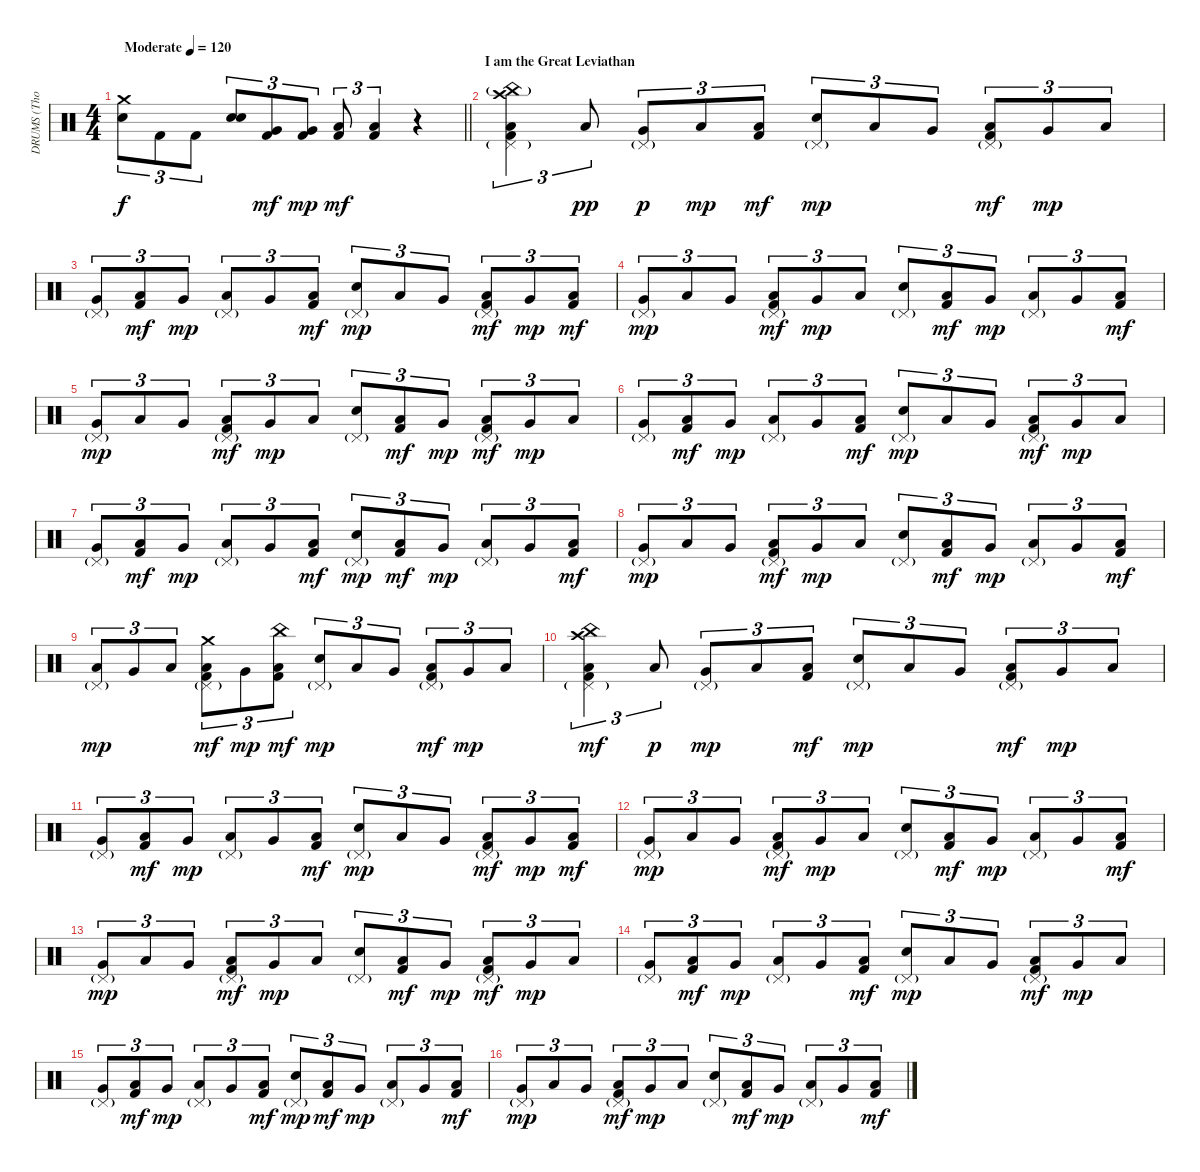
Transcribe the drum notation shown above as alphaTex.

\track ("DRUMS (Thomas Haake)" "DRUMS (Tho") {instrument percussion}
\staff {score}
\articulation defaults
\ts (4 4)
\tempo (120 "Moderate")
\clef neutral
\barLineRight lightlight
\ks c
("Crash medium (hit)" "Electric Snare (hit)").8{tu (3 2) dy f} "Kick (hit) 2".8{tu (3 2)} "Kick (hit) 2".8{tu (3 2)} ("Electric Snare (hit)" "Electric Snare (hit)").8{tu (3 2) bd 120} ("Very Low Tom (hit)" "Kick (hit) 2").8{tu (3 2) dy mf} ("Very Low Tom (hit)" "Kick (hit) 2").8{tu (3 2) dy mp} ("Low Floor Tom (hit)" "Kick (hit) 2").8{tu (3 2) dy mf} ("Low Floor Tom (hit)" "Kick (hit) 2").4{tu (3 2)} r.4 |
\section ("" "I am the Great Leviathan")
("Pedal Hi-Hat (hit)"{g} "Crash high (hit)" "China (hit)"{g} "Low Floor Tom (hit)" "Kick (hit) 2").4{tu (3 2)} "Low Floor Tom (hit)".8{tu (3 2) dy pp} ("Pedal Hi-Hat (hit)"{g} "Very Low Tom (hit)").8{tu (3 2) dy p} "Low Floor Tom (hit)".8{tu (3 2) dy mp} ("Low Floor Tom (hit)" "Kick (hit) 2").8{tu (3 2) dy mf} ("Pedal Hi-Hat (hit)"{g} "Electric Snare (hit)").8{tu (3 2) dy mp} "Low Floor Tom (hit)".8{tu (3 2)} "Very Low Tom (hit)".8{tu (3 2)} ("Pedal Hi-Hat (hit)"{g} "Low Floor Tom (hit)" "Kick (hit) 2").8{tu (3 2) dy mf} "Very Low Tom (hit)".8{tu (3 2) dy mp} "Low Floor Tom (hit)".8{tu (3 2)} |
("Pedal Hi-Hat (hit)"{g} "Very Low Tom (hit)").8{tu (3 2)} ("Low Floor Tom (hit)" "Kick (hit) 2").8{tu (3 2) dy mf} "Very Low Tom (hit)".8{tu (3 2) dy mp} ("Pedal Hi-Hat (hit)"{g} "Low Floor Tom (hit)").8{tu (3 2)} "Very Low Tom (hit)".8{tu (3 2)} ("Low Floor Tom (hit)" "Kick (hit) 2").8{tu (3 2) dy mf} ("Pedal Hi-Hat (hit)"{g} "Electric Snare (hit)").8{tu (3 2) dy mp} "Low Floor Tom (hit)".8{tu (3 2)} "Very Low Tom (hit)".8{tu (3 2)} ("Pedal Hi-Hat (hit)"{g} "Low Floor Tom (hit)" "Kick (hit) 2").8{tu (3 2) dy mf} "Very Low Tom (hit)".8{tu (3 2) dy mp} ("Low Floor Tom (hit)" "Kick (hit) 2").8{tu (3 2) dy mf} |
("Pedal Hi-Hat (hit)"{g} "Very Low Tom (hit)").8{tu (3 2) dy mp} "Low Floor Tom (hit)".8{tu (3 2)} "Very Low Tom (hit)".8{tu (3 2)} ("Pedal Hi-Hat (hit)"{g} "Low Floor Tom (hit)" "Kick (hit) 2").8{tu (3 2) dy mf} "Very Low Tom (hit)".8{tu (3 2) dy mp} "Low Floor Tom (hit)".8{tu (3 2)} ("Pedal Hi-Hat (hit)"{g} "Electric Snare (hit)").8{tu (3 2)} ("Low Floor Tom (hit)" "Kick (hit) 2").8{tu (3 2) dy mf} "Very Low Tom (hit)".8{tu (3 2) dy mp} ("Pedal Hi-Hat (hit)"{g} "Low Floor Tom (hit)").8{tu (3 2)} "Very Low Tom (hit)".8{tu (3 2)} ("Low Floor Tom (hit)" "Kick (hit) 2").8{tu (3 2) dy mf} |
("Pedal Hi-Hat (hit)"{g} "Very Low Tom (hit)").8{tu (3 2) dy mp} "Low Floor Tom (hit)".8{tu (3 2)} "Very Low Tom (hit)".8{tu (3 2)} ("Pedal Hi-Hat (hit)"{g} "Low Floor Tom (hit)" "Kick (hit) 2").8{tu (3 2) dy mf} "Very Low Tom (hit)".8{tu (3 2) dy mp} "Low Floor Tom (hit)".8{tu (3 2)} ("Pedal Hi-Hat (hit)"{g} "Electric Snare (hit)").8{tu (3 2)} ("Low Floor Tom (hit)" "Kick (hit) 2").8{tu (3 2) dy mf} "Very Low Tom (hit)".8{tu (3 2) dy mp} ("Pedal Hi-Hat (hit)"{g} "Low Floor Tom (hit)" "Kick (hit) 2").8{tu (3 2) dy mf} "Very Low Tom (hit)".8{tu (3 2) dy mp} "Low Floor Tom (hit)".8{tu (3 2)} |
("Pedal Hi-Hat (hit)"{g} "Very Low Tom (hit)").8{tu (3 2)} ("Low Floor Tom (hit)" "Kick (hit) 2").8{tu (3 2) dy mf} "Very Low Tom (hit)".8{tu (3 2) dy mp} ("Pedal Hi-Hat (hit)"{g} "Low Floor Tom (hit)").8{tu (3 2)} "Very Low Tom (hit)".8{tu (3 2)} ("Low Floor Tom (hit)" "Kick (hit) 2").8{tu (3 2) dy mf} ("Pedal Hi-Hat (hit)"{g} "Electric Snare (hit)").8{tu (3 2) dy mp} "Low Floor Tom (hit)".8{tu (3 2)} "Very Low Tom (hit)".8{tu (3 2)} ("Pedal Hi-Hat (hit)"{g} "Low Floor Tom (hit)" "Kick (hit) 2").8{tu (3 2) dy mf} "Very Low Tom (hit)".8{tu (3 2) dy mp} "Low Floor Tom (hit)".8{tu (3 2)} |
("Pedal Hi-Hat (hit)"{g} "Very Low Tom (hit)").8{tu (3 2)} ("Low Floor Tom (hit)" "Kick (hit) 2").8{tu (3 2) dy mf} "Very Low Tom (hit)".8{tu (3 2) dy mp} ("Pedal Hi-Hat (hit)"{g} "Low Floor Tom (hit)").8{tu (3 2)} "Very Low Tom (hit)".8{tu (3 2)} ("Low Floor Tom (hit)" "Kick (hit) 2").8{tu (3 2) dy mf} ("Pedal Hi-Hat (hit)"{g} "Electric Snare (hit)").8{tu (3 2) dy mp} ("Low Floor Tom (hit)" "Kick (hit) 2").8{tu (3 2) dy mf} "Very Low Tom (hit)".8{tu (3 2) dy mp} ("Pedal Hi-Hat (hit)"{g} "Low Floor Tom (hit)").8{tu (3 2)} "Very Low Tom (hit)".8{tu (3 2)} ("Low Floor Tom (hit)" "Kick (hit) 2").8{tu (3 2) dy mf} |
("Pedal Hi-Hat (hit)"{g} "Very Low Tom (hit)").8{tu (3 2) dy mp} "Low Floor Tom (hit)".8{tu (3 2)} "Very Low Tom (hit)".8{tu (3 2)} ("Pedal Hi-Hat (hit)"{g} "Low Floor Tom (hit)" "Kick (hit) 2").8{tu (3 2) dy mf} "Very Low Tom (hit)".8{tu (3 2) dy mp} "Low Floor Tom (hit)".8{tu (3 2)} ("Pedal Hi-Hat (hit)"{g} "Electric Snare (hit)").8{tu (3 2)} ("Low Floor Tom (hit)" "Kick (hit) 2").8{tu (3 2) dy mf} "Very Low Tom (hit)".8{tu (3 2) dy mp} ("Pedal Hi-Hat (hit)"{g} "Low Floor Tom (hit)").8{tu (3 2)} "Very Low Tom (hit)".8{tu (3 2)} ("Low Floor Tom (hit)" "Kick (hit) 2").8{tu (3 2) dy mf} |
("Pedal Hi-Hat (hit)"{g} "Low Floor Tom (hit)").8{tu (3 2) dy mp} "Very Low Tom (hit)".8{tu (3 2)} "Low Floor Tom (hit)".8{tu (3 2)} ("Pedal Hi-Hat (hit)"{g} "Crash medium (hit)" "Low Floor Tom (hit)" "Kick (hit) 2").8{tu (3 2) dy mf} "Very Low Tom (hit)".8{tu (3 2) dy mp} ("China (hit)" "Low Floor Tom (hit)" "Kick (hit) 2").8{tu (3 2) dy mf} ("Pedal Hi-Hat (hit)"{g} "Electric Snare (hit)").8{tu (3 2) dy mp} "Low Floor Tom (hit)".8{tu (3 2)} "Very Low Tom (hit)".8{tu (3 2)} ("Pedal Hi-Hat (hit)"{g} "Low Floor Tom (hit)" "Kick (hit) 2").8{tu (3 2) dy mf} "Very Low Tom (hit)".8{tu (3 2) dy mp} "Low Floor Tom (hit)".8{tu (3 2)} |
("Pedal Hi-Hat (hit)"{g} "Crash high (hit)" "China (hit)" "Low Floor Tom (hit)" "Kick (hit) 2").4{tu (3 2) dy mf} "Low Floor Tom (hit)".8{tu (3 2) dy p} ("Pedal Hi-Hat (hit)"{g} "Very Low Tom (hit)").8{tu (3 2) dy mp} "Low Floor Tom (hit)".8{tu (3 2)} ("Low Floor Tom (hit)" "Kick (hit) 2").8{tu (3 2) dy mf} ("Pedal Hi-Hat (hit)"{g} "Electric Snare (hit)").8{tu (3 2) dy mp} "Low Floor Tom (hit)".8{tu (3 2)} "Very Low Tom (hit)".8{tu (3 2)} ("Pedal Hi-Hat (hit)"{g} "Low Floor Tom (hit)" "Kick (hit) 2").8{tu (3 2) dy mf} "Very Low Tom (hit)".8{tu (3 2) dy mp} "Low Floor Tom (hit)".8{tu (3 2)} |
("Pedal Hi-Hat (hit)"{g} "Very Low Tom (hit)").8{tu (3 2)} ("Low Floor Tom (hit)" "Kick (hit) 2").8{tu (3 2) dy mf} "Very Low Tom (hit)".8{tu (3 2) dy mp} ("Pedal Hi-Hat (hit)"{g} "Low Floor Tom (hit)").8{tu (3 2)} "Very Low Tom (hit)".8{tu (3 2)} ("Low Floor Tom (hit)" "Kick (hit) 2").8{tu (3 2) dy mf} ("Pedal Hi-Hat (hit)"{g} "Electric Snare (hit)").8{tu (3 2) dy mp} "Low Floor Tom (hit)".8{tu (3 2)} "Very Low Tom (hit)".8{tu (3 2)} ("Pedal Hi-Hat (hit)"{g} "Low Floor Tom (hit)" "Kick (hit) 2").8{tu (3 2) dy mf} "Very Low Tom (hit)".8{tu (3 2) dy mp} ("Low Floor Tom (hit)" "Kick (hit) 2").8{tu (3 2) dy mf} |
("Pedal Hi-Hat (hit)"{g} "Very Low Tom (hit)").8{tu (3 2) dy mp} "Low Floor Tom (hit)".8{tu (3 2)} "Very Low Tom (hit)".8{tu (3 2)} ("Pedal Hi-Hat (hit)"{g} "Low Floor Tom (hit)" "Kick (hit) 2").8{tu (3 2) dy mf} "Very Low Tom (hit)".8{tu (3 2) dy mp} "Low Floor Tom (hit)".8{tu (3 2)} ("Pedal Hi-Hat (hit)"{g} "Electric Snare (hit)").8{tu (3 2)} ("Low Floor Tom (hit)" "Kick (hit) 2").8{tu (3 2) dy mf} "Very Low Tom (hit)".8{tu (3 2) dy mp} ("Pedal Hi-Hat (hit)"{g} "Low Floor Tom (hit)").8{tu (3 2)} "Very Low Tom (hit)".8{tu (3 2)} ("Low Floor Tom (hit)" "Kick (hit) 2").8{tu (3 2) dy mf} |
("Pedal Hi-Hat (hit)"{g} "Very Low Tom (hit)").8{tu (3 2) dy mp} "Low Floor Tom (hit)".8{tu (3 2)} "Very Low Tom (hit)".8{tu (3 2)} ("Pedal Hi-Hat (hit)"{g} "Low Floor Tom (hit)" "Kick (hit) 2").8{tu (3 2) dy mf} "Very Low Tom (hit)".8{tu (3 2) dy mp} "Low Floor Tom (hit)".8{tu (3 2)} ("Pedal Hi-Hat (hit)"{g} "Electric Snare (hit)").8{tu (3 2)} ("Low Floor Tom (hit)" "Kick (hit) 2").8{tu (3 2) dy mf} "Very Low Tom (hit)".8{tu (3 2) dy mp} ("Pedal Hi-Hat (hit)"{g} "Low Floor Tom (hit)" "Kick (hit) 2").8{tu (3 2) dy mf} "Very Low Tom (hit)".8{tu (3 2) dy mp} "Low Floor Tom (hit)".8{tu (3 2)} |
("Pedal Hi-Hat (hit)"{g} "Very Low Tom (hit)").8{tu (3 2)} ("Low Floor Tom (hit)" "Kick (hit) 2").8{tu (3 2) dy mf} "Very Low Tom (hit)".8{tu (3 2) dy mp} ("Pedal Hi-Hat (hit)"{g} "Low Floor Tom (hit)").8{tu (3 2)} "Very Low Tom (hit)".8{tu (3 2)} ("Low Floor Tom (hit)" "Kick (hit) 2").8{tu (3 2) dy mf} ("Pedal Hi-Hat (hit)"{g} "Electric Snare (hit)").8{tu (3 2) dy mp} "Low Floor Tom (hit)".8{tu (3 2)} "Very Low Tom (hit)".8{tu (3 2)} ("Pedal Hi-Hat (hit)"{g} "Low Floor Tom (hit)" "Kick (hit) 2").8{tu (3 2) dy mf} "Very Low Tom (hit)".8{tu (3 2) dy mp} "Low Floor Tom (hit)".8{tu (3 2)} |
("Pedal Hi-Hat (hit)"{g} "Very Low Tom (hit)").8{tu (3 2)} ("Low Floor Tom (hit)" "Kick (hit) 2").8{tu (3 2) dy mf} "Very Low Tom (hit)".8{tu (3 2) dy mp} ("Pedal Hi-Hat (hit)"{g} "Low Floor Tom (hit)").8{tu (3 2)} "Very Low Tom (hit)".8{tu (3 2)} ("Low Floor Tom (hit)" "Kick (hit) 2").8{tu (3 2) dy mf} ("Pedal Hi-Hat (hit)"{g} "Electric Snare (hit)").8{tu (3 2) dy mp} ("Low Floor Tom (hit)" "Kick (hit) 2").8{tu (3 2) dy mf} "Very Low Tom (hit)".8{tu (3 2) dy mp} ("Pedal Hi-Hat (hit)"{g} "Low Floor Tom (hit)").8{tu (3 2)} "Very Low Tom (hit)".8{tu (3 2)} ("Low Floor Tom (hit)" "Kick (hit) 2").8{tu (3 2) dy mf} |
("Pedal Hi-Hat (hit)"{g} "Very Low Tom (hit)").8{tu (3 2) dy mp} "Low Floor Tom (hit)".8{tu (3 2)} "Very Low Tom (hit)".8{tu (3 2)} ("Pedal Hi-Hat (hit)"{g} "Low Floor Tom (hit)" "Kick (hit) 2").8{tu (3 2) dy mf} "Very Low Tom (hit)".8{tu (3 2) dy mp} "Low Floor Tom (hit)".8{tu (3 2)} ("Pedal Hi-Hat (hit)"{g} "Electric Snare (hit)").8{tu (3 2)} ("Low Floor Tom (hit)" "Kick (hit) 2").8{tu (3 2) dy mf} "Very Low Tom (hit)".8{tu (3 2) dy mp} ("Pedal Hi-Hat (hit)"{g} "Low Floor Tom (hit)").8{tu (3 2)} "Very Low Tom (hit)".8{tu (3 2)} ("Low Floor Tom (hit)" "Kick (hit) 2").8{tu (3 2) dy mf}
